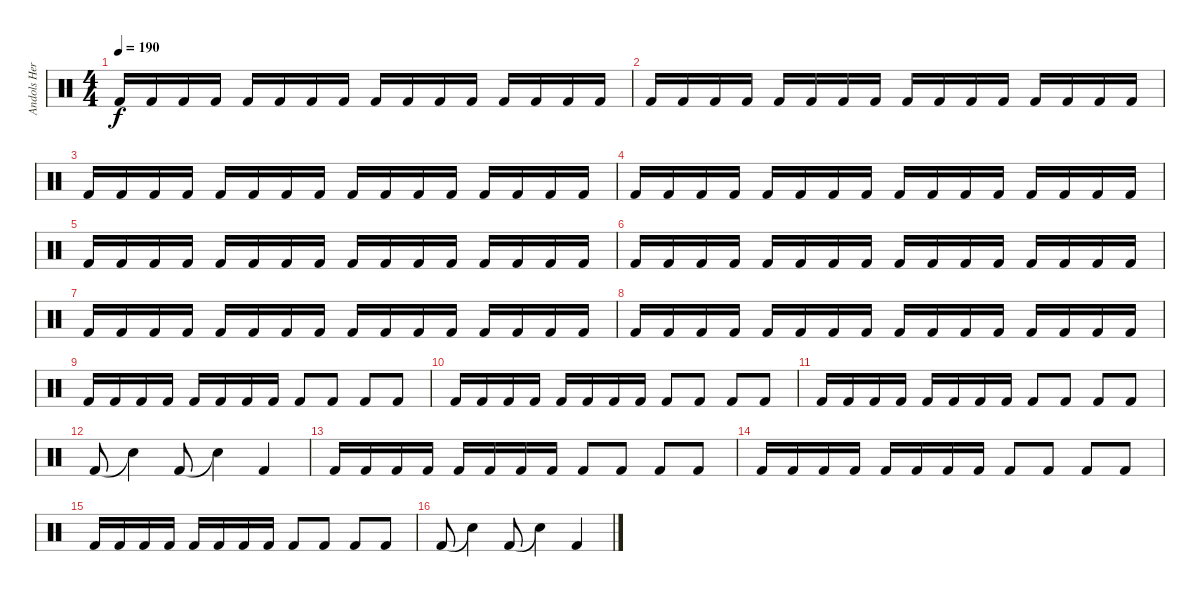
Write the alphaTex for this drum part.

\track ("Andols Herrick [KICK]" "Andols Her") {instrument percussion}
\staff {score}
\articulation defaults
\ts (4 4)
\tempo 190
\clef neutral
\ks c "Kick (hit) 2".16{dy f} "Kick (hit) 2".16 "Kick (hit) 2".16 "Kick (hit) 2".16 "Kick (hit) 2".16 "Kick (hit) 2".16 "Kick (hit) 2".16 "Kick (hit) 2".16 "Kick (hit) 2".16 "Kick (hit) 2".16 "Kick (hit) 2".16 "Kick (hit) 2".16 "Kick (hit) 2".16 "Kick (hit) 2".16 "Kick (hit) 2".16 "Kick (hit) 2".16
|
"Kick (hit) 2".16 "Kick (hit) 2".16 "Kick (hit) 2".16 "Kick (hit) 2".16 "Kick (hit) 2".16 "Kick (hit) 2".16 "Kick (hit) 2".16 "Kick (hit) 2".16 "Kick (hit) 2".16 "Kick (hit) 2".16 "Kick (hit) 2".16 "Kick (hit) 2".16 "Kick (hit) 2".16 "Kick (hit) 2".16 "Kick (hit) 2".16 "Kick (hit) 2".16 |
"Kick (hit) 2".16 "Kick (hit) 2".16 "Kick (hit) 2".16 "Kick (hit) 2".16 "Kick (hit) 2".16 "Kick (hit) 2".16 "Kick (hit) 2".16 "Kick (hit) 2".16 "Kick (hit) 2".16 "Kick (hit) 2".16 "Kick (hit) 2".16 "Kick (hit) 2".16 "Kick (hit) 2".16 "Kick (hit) 2".16 "Kick (hit) 2".16 "Kick (hit) 2".16 |
"Kick (hit) 2".16 "Kick (hit) 2".16 "Kick (hit) 2".16 "Kick (hit) 2".16 "Kick (hit) 2".16 "Kick (hit) 2".16 "Kick (hit) 2".16 "Kick (hit) 2".16 "Kick (hit) 2".16 "Kick (hit) 2".16 "Kick (hit) 2".16 "Kick (hit) 2".16 "Kick (hit) 2".16 "Kick (hit) 2".16 "Kick (hit) 2".16 "Kick (hit) 2".16 |
"Kick (hit) 2".16 "Kick (hit) 2".16 "Kick (hit) 2".16 "Kick (hit) 2".16 "Kick (hit) 2".16 "Kick (hit) 2".16 "Kick (hit) 2".16 "Kick (hit) 2".16 "Kick (hit) 2".16 "Kick (hit) 2".16 "Kick (hit) 2".16 "Kick (hit) 2".16 "Kick (hit) 2".16 "Kick (hit) 2".16 "Kick (hit) 2".16 "Kick (hit) 2".16 |
"Kick (hit) 2".16 "Kick (hit) 2".16 "Kick (hit) 2".16 "Kick (hit) 2".16 "Kick (hit) 2".16 "Kick (hit) 2".16 "Kick (hit) 2".16 "Kick (hit) 2".16 "Kick (hit) 2".16 "Kick (hit) 2".16 "Kick (hit) 2".16 "Kick (hit) 2".16 "Kick (hit) 2".16 "Kick (hit) 2".16 "Kick (hit) 2".16 "Kick (hit) 2".16 |
"Kick (hit) 2".16 "Kick (hit) 2".16 "Kick (hit) 2".16 "Kick (hit) 2".16 "Kick (hit) 2".16 "Kick (hit) 2".16 "Kick (hit) 2".16 "Kick (hit) 2".16 "Kick (hit) 2".16 "Kick (hit) 2".16 "Kick (hit) 2".16 "Kick (hit) 2".16 "Kick (hit) 2".16 "Kick (hit) 2".16 "Kick (hit) 2".16 "Kick (hit) 2".16 |
"Kick (hit) 2".16 "Kick (hit) 2".16 "Kick (hit) 2".16 "Kick (hit) 2".16 "Kick (hit) 2".16 "Kick (hit) 2".16 "Kick (hit) 2".16 "Kick (hit) 2".16 "Kick (hit) 2".16 "Kick (hit) 2".16 "Kick (hit) 2".16 "Kick (hit) 2".16 "Kick (hit) 2".16 "Kick (hit) 2".16 "Kick (hit) 2".16 "Kick (hit) 2".16 |
"Kick (hit) 2".16 "Kick (hit) 2".16 "Kick (hit) 2".16 "Kick (hit) 2".16 "Kick (hit) 2".16 "Kick (hit) 2".16 "Kick (hit) 2".16 "Kick (hit) 2".16 "Kick (hit) 2".8 "Kick (hit) 2".8 "Kick (hit) 2".8 "Kick (hit) 2".8 |
"Kick (hit) 2".16 "Kick (hit) 2".16 "Kick (hit) 2".16 "Kick (hit) 2".16 "Kick (hit) 2".16 "Kick (hit) 2".16 "Kick (hit) 2".16 "Kick (hit) 2".16 "Kick (hit) 2".8 "Kick (hit) 2".8 "Kick (hit) 2".8 "Kick (hit) 2".8 |
"Kick (hit) 2".16 "Kick (hit) 2".16 "Kick (hit) 2".16 "Kick (hit) 2".16 "Kick (hit) 2".16 "Kick (hit) 2".16 "Kick (hit) 2".16 "Kick (hit) 2".16 "Kick (hit) 2".8 "Kick (hit) 2".8 "Kick (hit) 2".8 "Kick (hit) 2".8 |
"Kick (hit) 2".8 "Snare (hit)"{t}.4 "Kick (hit) 2".8 "Snare (hit)"{t}.4 "Kick (hit) 2".4 |
"Kick (hit) 2".16 "Kick (hit) 2".16 "Kick (hit) 2".16 "Kick (hit) 2".16 "Kick (hit) 2".16 "Kick (hit) 2".16 "Kick (hit) 2".16 "Kick (hit) 2".16 "Kick (hit) 2".8 "Kick (hit) 2".8 "Kick (hit) 2".8 "Kick (hit) 2".8 |
"Kick (hit) 2".16 "Kick (hit) 2".16 "Kick (hit) 2".16 "Kick (hit) 2".16 "Kick (hit) 2".16 "Kick (hit) 2".16 "Kick (hit) 2".16 "Kick (hit) 2".16 "Kick (hit) 2".8 "Kick (hit) 2".8 "Kick (hit) 2".8 "Kick (hit) 2".8 |
"Kick (hit) 2".16 "Kick (hit) 2".16 "Kick (hit) 2".16 "Kick (hit) 2".16 "Kick (hit) 2".16 "Kick (hit) 2".16 "Kick (hit) 2".16 "Kick (hit) 2".16 "Kick (hit) 2".8 "Kick (hit) 2".8 "Kick (hit) 2".8 "Kick (hit) 2".8 |
"Kick (hit) 2".8 "Snare (hit)"{t}.4 "Kick (hit) 2".8 "Snare (hit)"{t}.4 "Kick (hit) 2".4
